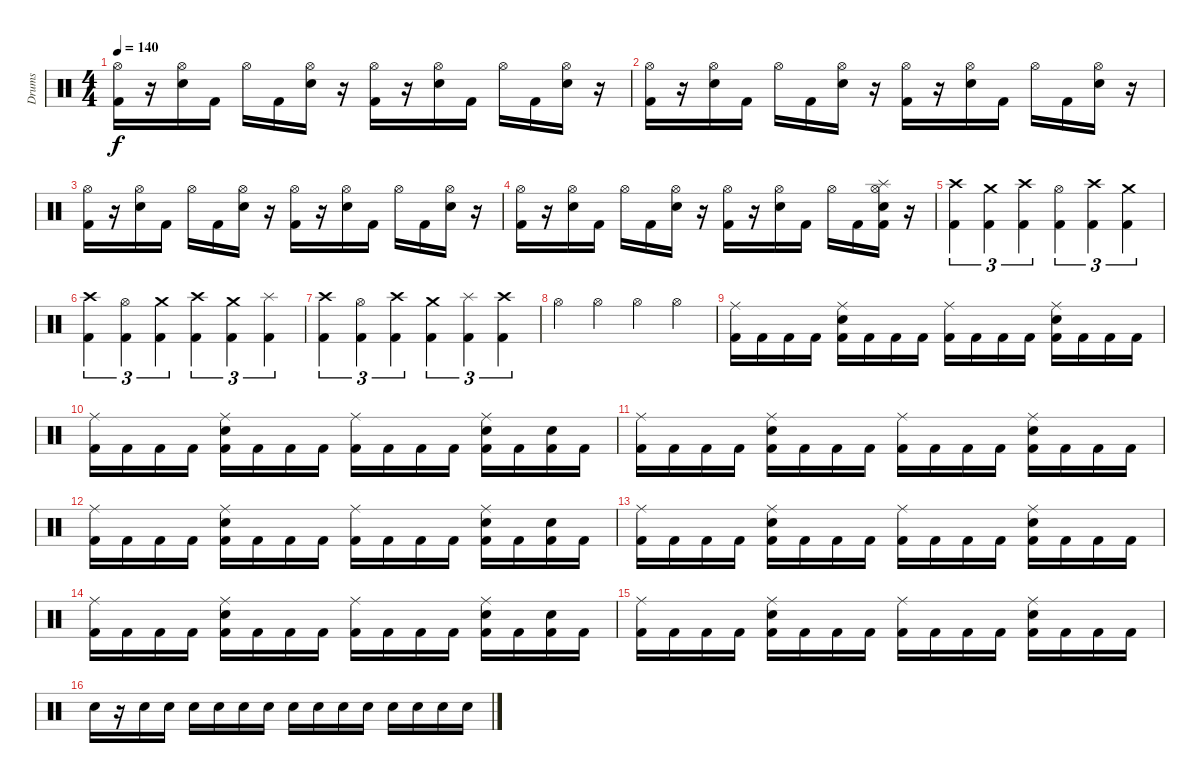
\track ("Drums" "Drums") {instrument percussion}
\staff {score}
\articulation defaults
\ts (4 4)
\tempo 140
\clef neutral
\ks c
("Kick (hit) 2" "Hi-Hat (open)").16{dy f} r.16 ("Hi-Hat (open)" "Electric Snare (hit)").16 "Kick (hit) 2".16 "Hi-Hat (open)".16 "Kick (hit) 2".16 ("Hi-Hat (open)" "Electric Snare (hit)").16 r.16 ("Hi-Hat (open)" "Kick (hit) 2").16 r.16 ("Hi-Hat (open)" "Electric Snare (hit)").16 "Kick (hit) 2".16 "Hi-Hat (open)".16 "Kick (hit) 2".16 ("Electric Snare (hit)" "Hi-Hat (open)").16 r.16 |
("Kick (hit) 2" "Hi-Hat (open)").16 r.16 ("Hi-Hat (open)" "Electric Snare (hit)").16 "Kick (hit) 2".16 "Hi-Hat (open)".16 "Kick (hit) 2".16 ("Hi-Hat (open)" "Electric Snare (hit)").16 r.16 ("Hi-Hat (open)" "Kick (hit) 2").16 r.16 ("Electric Snare (hit)" "Hi-Hat (open)").16 "Kick (hit) 2".16 "Hi-Hat (open)".16 "Kick (hit) 2".16 ("Hi-Hat (open)" "Electric Snare (hit)").16 r.16 |
("Hi-Hat (open)" "Kick (hit) 2").16 r.16 ("Electric Snare (hit)" "Hi-Hat (open)").16 "Kick (hit) 2".16 "Hi-Hat (open)".16 "Kick (hit) 2".16 ("Hi-Hat (open)" "Electric Snare (hit)").16 r.16 ("Kick (hit) 2" "Hi-Hat (open)").16 r.16 ("Electric Snare (hit)" "Hi-Hat (open)").16 "Kick (hit) 2".16 "Hi-Hat (open)".16 "Kick (hit) 2".16 ("Electric Snare (hit)" "Hi-Hat (open)").16 r.16 |
("Kick (hit) 2" "Hi-Hat (open)").16 r.16 ("Electric Snare (hit)" "Hi-Hat (open)").16 "Kick (hit) 2".16 "Hi-Hat (open)".16 "Kick (hit) 2".16 ("Electric Snare (hit)" "Hi-Hat (open)").16 r.16 ("Hi-Hat (open)" "Kick (hit) 2").16 r.16 ("Hi-Hat (open)" "Electric Snare (hit)").16 "Kick (hit) 2".16 "Hi-Hat (open)".16 "Kick (hit) 2".16 ("Splash (hit)" "Kick (hit) 2" "Hi-Hat (open)" "Electric Snare (hit)").16 r.16 |
("Crash high (hit)" "Kick (hit) 2").4{tu (3 2)} ("Crash medium (hit)" "Kick (hit) 2").4{tu (3 2)} ("Crash high (hit)" "Kick (hit) 2").4{tu (3 2)} ("Hi-Hat (open)" "Kick (hit) 2").4{tu (3 2)} ("Crash high (hit)" "Kick (hit) 2").4{tu (3 2)} ("Crash medium (hit)" "Kick (hit) 2").4{tu (3 2)} |
("Crash high (hit)" "Kick (hit) 2").4{tu (3 2)} ("Hi-Hat (open)" "Kick (hit) 2").4{tu (3 2)} ("Crash medium (hit)" "Kick (hit) 2").4{tu (3 2)} ("Crash high (hit)" "Kick (hit) 2").4{tu (3 2)} ("Crash medium (hit)" "Kick (hit) 2").4{tu (3 2)} ("Splash (hit)" "Kick (hit) 2").4{tu (3 2)} |
("Crash high (hit)" "Kick (hit) 2").4{tu (3 2)} ("Hi-Hat (open)" "Kick (hit) 2").4{tu (3 2)} ("Crash high (hit)" "Kick (hit) 2").4{tu (3 2)} ("Crash medium (hit)" "Kick (hit) 2").4{tu (3 2)} ("Splash (hit)" "Kick (hit) 2").4{tu (3 2)} ("Crash high (hit)" "Kick (hit) 2").4{tu (3 2)} |
"Hi-Hat (open)".4 "Hi-Hat (open)".4 "Hi-Hat (open)".4 "Hi-Hat (open)".4 |
("Ride (middle)" "Kick (hit) 2").16 "Kick (hit) 2".16 "Kick (hit) 2".16 "Kick (hit) 2".16 ("Kick (hit) 2" "Electric Snare (hit)" "Ride (middle)").16 "Kick (hit) 2".16 "Kick (hit) 2".16 "Kick (hit) 2".16 ("Kick (hit) 2" "Ride (middle)").16 "Kick (hit) 2".16 "Kick (hit) 2".16 "Kick (hit) 2".16 ("Electric Snare (hit)" "Kick (hit) 2" "Ride (middle)").16 "Kick (hit) 2".16 "Kick (hit) 2".16 "Kick (hit) 2".16 |
("Kick (hit) 2" "Ride (middle)").16 "Kick (hit) 2".16 "Kick (hit) 2".16 "Kick (hit) 2".16 ("Ride (middle)" "Electric Snare (hit)" "Kick (hit) 2").16 "Kick (hit) 2".16 "Kick (hit) 2".16 "Kick (hit) 2".16 ("Kick (hit) 2" "Ride (middle)").16 "Kick (hit) 2".16 "Kick (hit) 2".16 "Kick (hit) 2".16 ("Electric Snare (hit)" "Ride (middle)" "Kick (hit) 2").16 "Kick (hit) 2".16 ("Kick (hit) 2" "Electric Snare (hit)").16 "Kick (hit) 2".16 |
("Kick (hit) 2" "Ride (middle)").16 "Kick (hit) 2".16 "Kick (hit) 2".16 "Kick (hit) 2".16 ("Kick (hit) 2" "Ride (middle)" "Electric Snare (hit)").16 "Kick (hit) 2".16 "Kick (hit) 2".16 "Kick (hit) 2".16 ("Ride (middle)" "Kick (hit) 2").16 "Kick (hit) 2".16 "Kick (hit) 2".16 "Kick (hit) 2".16 ("Ride (middle)" "Kick (hit) 2" "Electric Snare (hit)").16 "Kick (hit) 2".16 "Kick (hit) 2".16 "Kick (hit) 2".16 |
("Kick (hit) 2" "Ride (middle)").16 "Kick (hit) 2".16 "Kick (hit) 2".16 "Kick (hit) 2".16 ("Ride (middle)" "Electric Snare (hit)" "Kick (hit) 2").16 "Kick (hit) 2".16 "Kick (hit) 2".16 "Kick (hit) 2".16 ("Kick (hit) 2" "Ride (middle)").16 "Kick (hit) 2".16 "Kick (hit) 2".16 "Kick (hit) 2".16 ("Electric Snare (hit)" "Ride (middle)" "Kick (hit) 2").16 "Kick (hit) 2".16 ("Electric Snare (hit)" "Kick (hit) 2").16 "Kick (hit) 2".16 |
("Ride (middle)" "Kick (hit) 2").16 "Kick (hit) 2".16 "Kick (hit) 2".16 "Kick (hit) 2".16 ("Kick (hit) 2" "Electric Snare (hit)" "Ride (middle)").16 "Kick (hit) 2".16 "Kick (hit) 2".16 "Kick (hit) 2".16 ("Kick (hit) 2" "Ride (middle)").16 "Kick (hit) 2".16 "Kick (hit) 2".16 "Kick (hit) 2".16 ("Electric Snare (hit)" "Ride (middle)" "Kick (hit) 2").16 "Kick (hit) 2".16 "Kick (hit) 2".16 "Kick (hit) 2".16 |
("Ride (middle)" "Kick (hit) 2").16 "Kick (hit) 2".16 "Kick (hit) 2".16 "Kick (hit) 2".16 ("Electric Snare (hit)" "Kick (hit) 2" "Ride (middle)").16 "Kick (hit) 2".16 "Kick (hit) 2".16 "Kick (hit) 2".16 ("Kick (hit) 2" "Ride (middle)").16 "Kick (hit) 2".16 "Kick (hit) 2".16 "Kick (hit) 2".16 ("Electric Snare (hit)" "Kick (hit) 2" "Ride (middle)").16 "Kick (hit) 2".16 ("Electric Snare (hit)" "Kick (hit) 2").16 "Kick (hit) 2".16 |
("Kick (hit) 2" "Ride (middle)").16 "Kick (hit) 2".16 "Kick (hit) 2".16 "Kick (hit) 2".16 ("Electric Snare (hit)" "Kick (hit) 2" "Ride (middle)").16 "Kick (hit) 2".16 "Kick (hit) 2".16 "Kick (hit) 2".16 ("Kick (hit) 2" "Ride (middle)").16 "Kick (hit) 2".16 "Kick (hit) 2".16 "Kick (hit) 2".16 ("Electric Snare (hit)" "Ride (middle)" "Kick (hit) 2").16 "Kick (hit) 2".16 "Kick (hit) 2".16 "Kick (hit) 2".16 |
"Electric Snare (hit)".16 r.16 "Electric Snare (hit)".16 "Electric Snare (hit)".16 "Electric Snare (hit)".16 "Electric Snare (hit)".16 "Electric Snare (hit)".16 "Electric Snare (hit)".16 "Electric Snare (hit)".16 "Electric Snare (hit)".16 "Electric Snare (hit)".16 "Electric Snare (hit)".16 "Electric Snare (hit)".16 "Electric Snare (hit)".16 "Electric Snare (hit)".16 "Electric Snare (hit)".16
